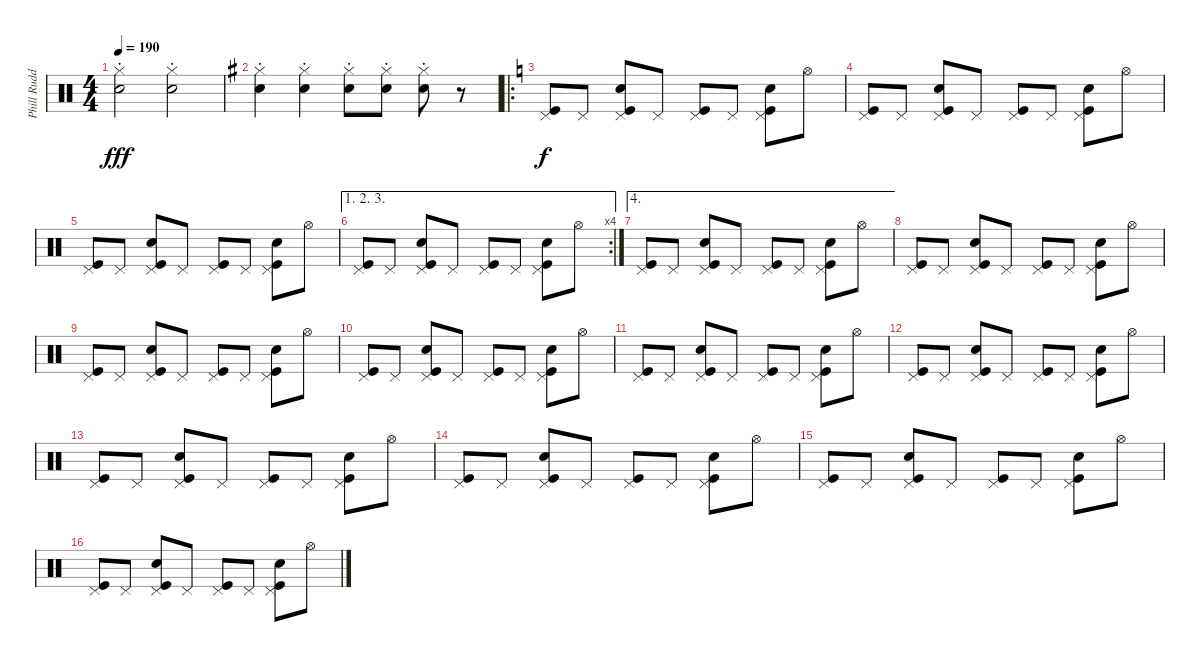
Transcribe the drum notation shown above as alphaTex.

\track ("Phill Rudd (Drums)" "Phill Rudd") {instrument percussion}
\staff {score}
\articulation defaults
\ts (4 4)
\tempo 190
\clef neutral
\ks c
("Hi-Hat (closed)"{st} "Snare (hit) 2"{st}).2{dy fff} ("Hi-Hat (closed)"{st} "Snare (hit) 2"{st}).2 |
\ks g
("Hi-Hat (closed)"{st} "Snare (hit) 2"{st}).4 ("Hi-Hat (closed)"{st} "Snare (hit) 2"{st}).4 ("Hi-Hat (closed)"{st} "Snare (hit) 2"{st}).8 ("Hi-Hat (closed)"{st} "Snare (hit) 2"{st}).8 ("Hi-Hat (closed)"{st} "Snare (hit) 2"{st}).8 r.8 |
\ro
\ks c
("Pedal Hi-Hat (hit)" "Kick (hit)").8{dy f} "Pedal Hi-Hat (hit)".8 ("Pedal Hi-Hat (hit)" "Snare (hit) 2" "Kick (hit)").8 "Pedal Hi-Hat (hit)".8 ("Pedal Hi-Hat (hit)" "Kick (hit)").8 "Pedal Hi-Hat (hit)".8 ("Pedal Hi-Hat (hit)" "Snare (hit) 2" "Kick (hit)").8 "Hi-Hat (open)".8 |
("Pedal Hi-Hat (hit)" "Kick (hit)").8 "Pedal Hi-Hat (hit)".8 ("Pedal Hi-Hat (hit)" "Snare (hit) 2" "Kick (hit)").8 "Pedal Hi-Hat (hit)".8 ("Pedal Hi-Hat (hit)" "Kick (hit)").8 "Pedal Hi-Hat (hit)".8 ("Pedal Hi-Hat (hit)" "Snare (hit) 2" "Kick (hit)").8 "Hi-Hat (open)".8 |
("Pedal Hi-Hat (hit)" "Kick (hit)").8 "Pedal Hi-Hat (hit)".8 ("Pedal Hi-Hat (hit)" "Snare (hit) 2" "Kick (hit)").8 "Pedal Hi-Hat (hit)".8 ("Pedal Hi-Hat (hit)" "Kick (hit)").8 "Pedal Hi-Hat (hit)".8 ("Pedal Hi-Hat (hit)" "Snare (hit) 2" "Kick (hit)").8 "Hi-Hat (open)".8 |
\ae (1 2 3)
\rc 4
("Pedal Hi-Hat (hit)" "Kick (hit)").8 "Pedal Hi-Hat (hit)".8 ("Pedal Hi-Hat (hit)" "Snare (hit) 2" "Kick (hit)").8 "Pedal Hi-Hat (hit)".8 ("Pedal Hi-Hat (hit)" "Kick (hit)").8 "Pedal Hi-Hat (hit)".8 ("Pedal Hi-Hat (hit)" "Snare (hit) 2" "Kick (hit)").8 "Hi-Hat (open)".8 |
\ae 4
("Pedal Hi-Hat (hit)" "Kick (hit)").8 "Pedal Hi-Hat (hit)".8 ("Pedal Hi-Hat (hit)" "Snare (hit) 2" "Kick (hit)").8 "Pedal Hi-Hat (hit)".8 ("Pedal Hi-Hat (hit)" "Kick (hit)").8 "Pedal Hi-Hat (hit)".8 ("Pedal Hi-Hat (hit)" "Snare (hit) 2" "Kick (hit)").8 "Hi-Hat (open)".8 |
("Pedal Hi-Hat (hit)" "Kick (hit)").8 "Pedal Hi-Hat (hit)".8 ("Pedal Hi-Hat (hit)" "Snare (hit) 2" "Kick (hit)").8 "Pedal Hi-Hat (hit)".8 ("Pedal Hi-Hat (hit)" "Kick (hit)").8 "Pedal Hi-Hat (hit)".8 ("Pedal Hi-Hat (hit)" "Snare (hit) 2" "Kick (hit)").8 "Hi-Hat (open)".8 |
("Pedal Hi-Hat (hit)" "Kick (hit)").8 "Pedal Hi-Hat (hit)".8 ("Pedal Hi-Hat (hit)" "Snare (hit) 2" "Kick (hit)").8 "Pedal Hi-Hat (hit)".8 ("Pedal Hi-Hat (hit)" "Kick (hit)").8 "Pedal Hi-Hat (hit)".8 ("Pedal Hi-Hat (hit)" "Snare (hit) 2" "Kick (hit)").8 "Hi-Hat (open)".8 |
("Pedal Hi-Hat (hit)" "Kick (hit)").8 "Pedal Hi-Hat (hit)".8 ("Pedal Hi-Hat (hit)" "Snare (hit) 2" "Kick (hit)").8 "Pedal Hi-Hat (hit)".8 ("Pedal Hi-Hat (hit)" "Kick (hit)").8 "Pedal Hi-Hat (hit)".8 ("Pedal Hi-Hat (hit)" "Snare (hit) 2" "Kick (hit)").8 "Hi-Hat (open)".8 |
("Pedal Hi-Hat (hit)" "Kick (hit)").8 "Pedal Hi-Hat (hit)".8 ("Pedal Hi-Hat (hit)" "Snare (hit) 2" "Kick (hit)").8 "Pedal Hi-Hat (hit)".8 ("Pedal Hi-Hat (hit)" "Kick (hit)").8 "Pedal Hi-Hat (hit)".8 ("Pedal Hi-Hat (hit)" "Snare (hit) 2" "Kick (hit)").8 "Hi-Hat (open)".8 |
("Pedal Hi-Hat (hit)" "Kick (hit)").8 "Pedal Hi-Hat (hit)".8 ("Pedal Hi-Hat (hit)" "Snare (hit) 2" "Kick (hit)").8 "Pedal Hi-Hat (hit)".8 ("Pedal Hi-Hat (hit)" "Kick (hit)").8 "Pedal Hi-Hat (hit)".8 ("Pedal Hi-Hat (hit)" "Snare (hit) 2" "Kick (hit)").8 "Hi-Hat (open)".8 |
("Pedal Hi-Hat (hit)" "Kick (hit)").8 "Pedal Hi-Hat (hit)".8 ("Pedal Hi-Hat (hit)" "Snare (hit) 2" "Kick (hit)").8 "Pedal Hi-Hat (hit)".8 ("Pedal Hi-Hat (hit)" "Kick (hit)").8 "Pedal Hi-Hat (hit)".8 ("Pedal Hi-Hat (hit)" "Snare (hit) 2" "Kick (hit)").8 "Hi-Hat (open)".8 |
("Pedal Hi-Hat (hit)" "Kick (hit)").8 "Pedal Hi-Hat (hit)".8 ("Pedal Hi-Hat (hit)" "Snare (hit) 2" "Kick (hit)").8 "Pedal Hi-Hat (hit)".8 ("Pedal Hi-Hat (hit)" "Kick (hit)").8 "Pedal Hi-Hat (hit)".8 ("Pedal Hi-Hat (hit)" "Snare (hit) 2" "Kick (hit)").8 "Hi-Hat (open)".8 |
("Pedal Hi-Hat (hit)" "Kick (hit)").8 "Pedal Hi-Hat (hit)".8 ("Pedal Hi-Hat (hit)" "Snare (hit) 2" "Kick (hit)").8 "Pedal Hi-Hat (hit)".8 ("Pedal Hi-Hat (hit)" "Kick (hit)").8 "Pedal Hi-Hat (hit)".8 ("Pedal Hi-Hat (hit)" "Snare (hit) 2" "Kick (hit)").8 "Hi-Hat (open)".8 |
("Pedal Hi-Hat (hit)" "Kick (hit)").8 "Pedal Hi-Hat (hit)".8 ("Pedal Hi-Hat (hit)" "Snare (hit) 2" "Kick (hit)").8 "Pedal Hi-Hat (hit)".8 ("Pedal Hi-Hat (hit)" "Kick (hit)").8 "Pedal Hi-Hat (hit)".8 ("Pedal Hi-Hat (hit)" "Snare (hit) 2" "Kick (hit)").8 "Hi-Hat (open)".8
